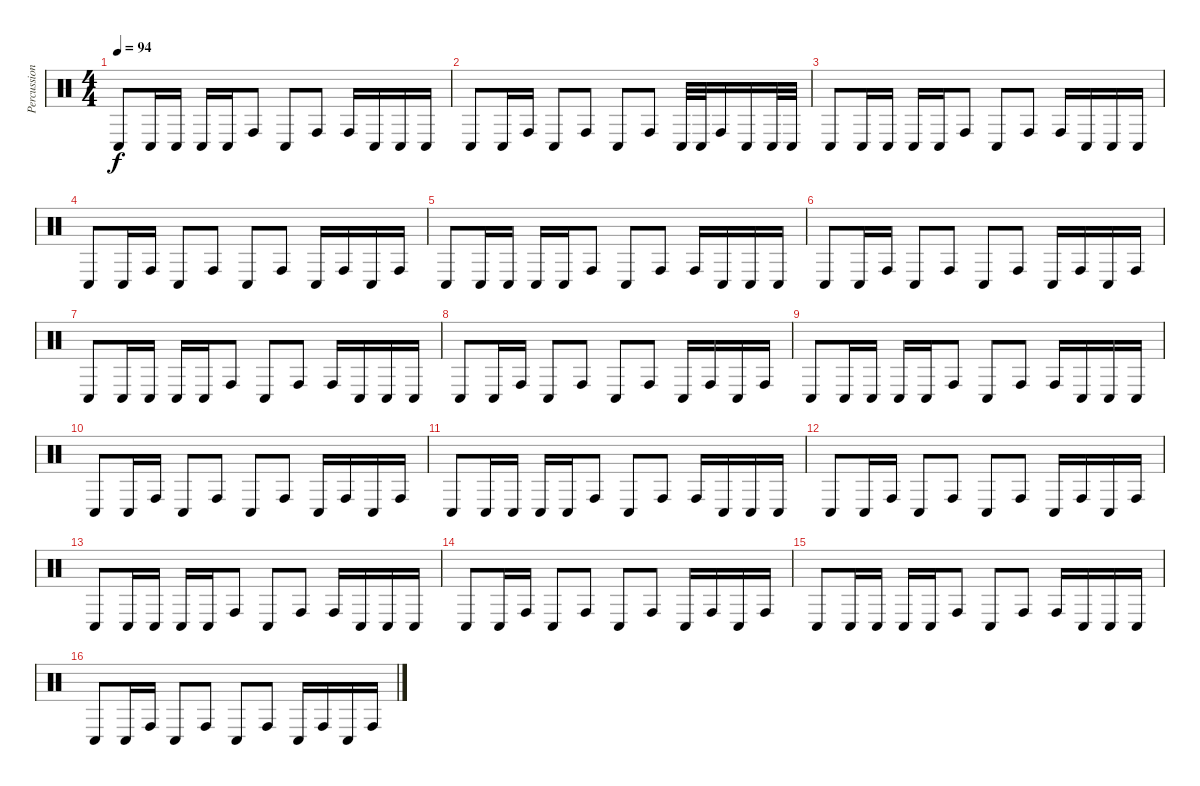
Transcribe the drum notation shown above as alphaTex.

\track ("Percussion" "Percussion") {instrument percussion}
\staff {score}
\articulation defaults
\ts (4 4)
\tempo 94
\clef neutral
\ks c "Conga low (hit)".8{dy f} "Conga low (hit)".16 "Conga low (hit)".16 "Conga low (hit)".16 "Conga low (hit)".16 "Conga high (hit)".8 "Conga low (hit)".8 "Conga high (hit)".8 "Conga high (hit)".16 "Conga low (hit)".16 "Conga low (hit)".16 "Conga low (hit)".16
|
"Conga low (hit)".8 "Conga low (hit)".16 "Conga high (hit)".16 "Conga low (hit)".8 "Conga high (hit)".8 "Conga low (hit)".8 "Conga high (hit)".8 "Conga low (hit)".32 "Conga low (hit)".32 "Conga high (hit)".16 "Conga low (hit)".16 "Conga low (hit)".32 "Conga low (hit)".32 |
"Conga low (hit)".8 "Conga low (hit)".16 "Conga low (hit)".16 "Conga low (hit)".16 "Conga low (hit)".16 "Conga high (hit)".8 "Conga low (hit)".8 "Conga high (hit)".8 "Conga high (hit)".16 "Conga low (hit)".16 "Conga low (hit)".16 "Conga low (hit)".16 |
"Conga low (hit)".8 "Conga low (hit)".16 "Conga high (hit)".16 "Conga low (hit)".8 "Conga high (hit)".8 "Conga low (hit)".8 "Conga high (hit)".8 "Conga low (hit)".16 "Conga high (hit)".16 "Conga low (hit)".16 "Conga high (hit)".16 |
"Conga low (hit)".8 "Conga low (hit)".16 "Conga low (hit)".16 "Conga low (hit)".16 "Conga low (hit)".16 "Conga high (hit)".8 "Conga low (hit)".8 "Conga high (hit)".8 "Conga high (hit)".16 "Conga low (hit)".16 "Conga low (hit)".16 "Conga low (hit)".16 |
"Conga low (hit)".8 "Conga low (hit)".16 "Conga high (hit)".16 "Conga low (hit)".8 "Conga high (hit)".8 "Conga low (hit)".8 "Conga high (hit)".8 "Conga low (hit)".16 "Conga high (hit)".16 "Conga low (hit)".16 "Conga high (hit)".16 |
"Conga low (hit)".8 "Conga low (hit)".16 "Conga low (hit)".16 "Conga low (hit)".16 "Conga low (hit)".16 "Conga high (hit)".8 "Conga low (hit)".8 "Conga high (hit)".8 "Conga high (hit)".16 "Conga low (hit)".16 "Conga low (hit)".16 "Conga low (hit)".16 |
"Conga low (hit)".8 "Conga low (hit)".16 "Conga high (hit)".16 "Conga low (hit)".8 "Conga high (hit)".8 "Conga low (hit)".8 "Conga high (hit)".8 "Conga low (hit)".16 "Conga high (hit)".16 "Conga low (hit)".16 "Conga high (hit)".16 |
"Conga low (hit)".8 "Conga low (hit)".16 "Conga low (hit)".16 "Conga low (hit)".16 "Conga low (hit)".16 "Conga high (hit)".8 "Conga low (hit)".8 "Conga high (hit)".8 "Conga high (hit)".16 "Conga low (hit)".16 "Conga low (hit)".16 "Conga low (hit)".16 |
"Conga low (hit)".8 "Conga low (hit)".16 "Conga high (hit)".16 "Conga low (hit)".8 "Conga high (hit)".8 "Conga low (hit)".8 "Conga high (hit)".8 "Conga low (hit)".16 "Conga high (hit)".16 "Conga low (hit)".16 "Conga high (hit)".16 |
"Conga low (hit)".8 "Conga low (hit)".16 "Conga low (hit)".16 "Conga low (hit)".16 "Conga low (hit)".16 "Conga high (hit)".8 "Conga low (hit)".8 "Conga high (hit)".8 "Conga high (hit)".16 "Conga low (hit)".16 "Conga low (hit)".16 "Conga low (hit)".16 |
"Conga low (hit)".8 "Conga low (hit)".16 "Conga high (hit)".16 "Conga low (hit)".8 "Conga high (hit)".8 "Conga low (hit)".8 "Conga high (hit)".8 "Conga low (hit)".16 "Conga high (hit)".16 "Conga low (hit)".16 "Conga high (hit)".16 |
"Conga low (hit)".8 "Conga low (hit)".16 "Conga low (hit)".16 "Conga low (hit)".16 "Conga low (hit)".16 "Conga high (hit)".8 "Conga low (hit)".8 "Conga high (hit)".8 "Conga high (hit)".16 "Conga low (hit)".16 "Conga low (hit)".16 "Conga low (hit)".16 |
"Conga low (hit)".8 "Conga low (hit)".16 "Conga high (hit)".16 "Conga low (hit)".8 "Conga high (hit)".8 "Conga low (hit)".8 "Conga high (hit)".8 "Conga low (hit)".16 "Conga high (hit)".16 "Conga low (hit)".16 "Conga high (hit)".16 |
"Conga low (hit)".8{volume 13} "Conga low (hit)".16 "Conga low (hit)".16 "Conga low (hit)".16 "Conga low (hit)".16 "Conga high (hit)".8 "Conga low (hit)".8 "Conga high (hit)".8 "Conga high (hit)".16 "Conga low (hit)".16 "Conga low (hit)".16 "Conga low (hit)".16 |
"Conga low (hit)".8{volume 11} "Conga low (hit)".16 "Conga high (hit)".16 "Conga low (hit)".8 "Conga high (hit)".8 "Conga low (hit)".8 "Conga high (hit)".8 "Conga low (hit)".16 "Conga high (hit)".16 "Conga low (hit)".16 "Conga high (hit)".16
